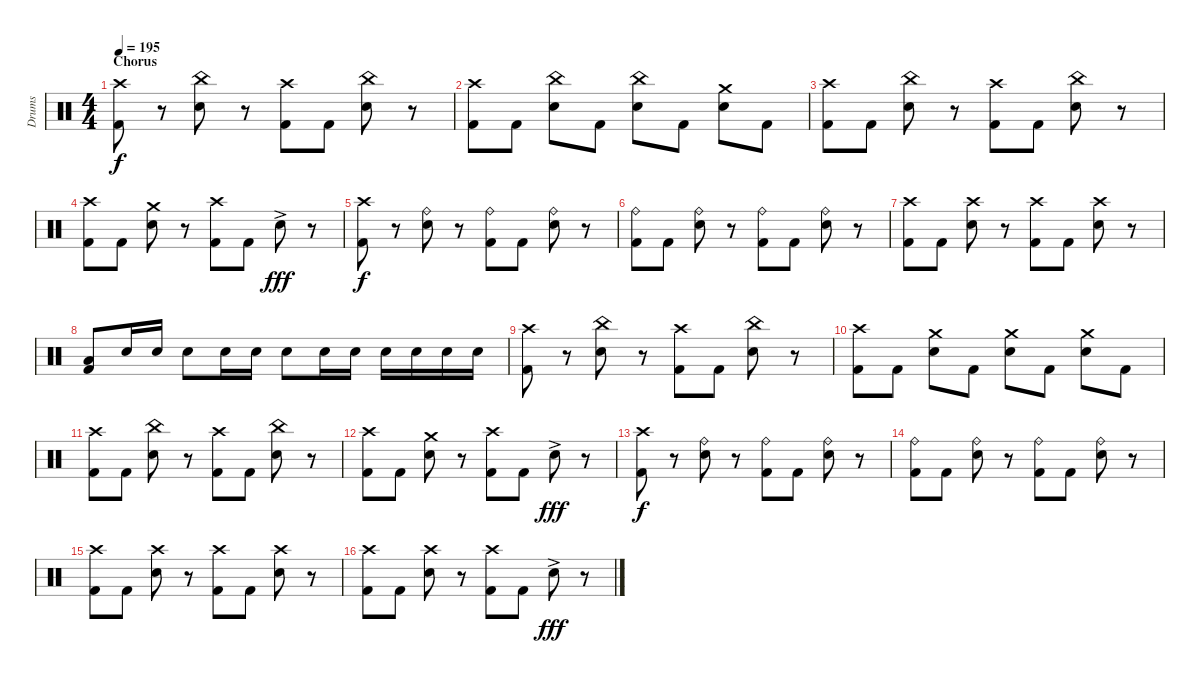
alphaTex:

\track ("Drums" "Drums") {instrument percussion}
\staff {score}
\articulation defaults
\ts (4 4)
\section ("" "Chorus")
\tempo 195
\clef neutral
\ks c
("Crash high (hit)" "Kick (hit) 2").8{dy f} r.8 ("China (hit)" "Electric Snare (hit)").8 r.8 ("Crash high (hit)" "Kick (hit) 2").8 "Kick (hit) 2".8 ("China (hit)" "Electric Snare (hit)").8 r.8 |
("Crash high (hit)" "Kick (hit) 2").8 "Kick (hit) 2".8 ("China (hit)" "Electric Snare (hit)").8 "Kick (hit) 2".8 ("China (hit)" "Electric Snare (hit)").8 "Kick (hit) 2".8 ("Crash medium (hit)" "Electric Snare (hit)").8 "Kick (hit) 2".8 |
("Crash high (hit)" "Kick (hit) 2").8 "Kick (hit) 2".8 ("China (hit)" "Electric Snare (hit)").8 r.8 ("Crash high (hit)" "Kick (hit) 2").8 "Kick (hit) 2".8 ("China (hit)" "Electric Snare (hit)").8 r.8 |
("Crash high (hit)" "Kick (hit) 2").8 "Kick (hit) 2".8 ("Crash medium (hit)" "Electric Snare (hit)").8 r.8 ("Crash high (hit)" "Kick (hit) 2").8 "Kick (hit) 2".8 "Electric Snare (hit)"{ac}.8{dy fff} r.8 |
("Crash high (hit)" "Kick (hit) 2").8{dy f} r.8 ("Ride (bell)" "Electric Snare (hit)").8 r.8 ("Ride (bell)" "Kick (hit) 2").8 "Kick (hit) 2".8 ("Ride (bell)" "Electric Snare (hit)").8 r.8 |
("Ride (bell)" "Kick (hit) 2").8 "Kick (hit) 2".8 ("Ride (bell)" "Electric Snare (hit)").8 r.8 ("Ride (bell)" "Kick (hit) 2").8 "Kick (hit) 2".8 ("Ride (bell)" "Electric Snare (hit)").8 r.8 |
("Crash high (hit)" "Kick (hit) 2").8 "Kick (hit) 2".8 ("Crash high (hit)" "Electric Snare (hit)").8 r.8 ("Crash high (hit)" "Kick (hit) 2").8 "Kick (hit) 2".8 ("Crash high (hit)" "Electric Snare (hit)").8 r.8 |
("Low Tom (hit)" "Kick (hit) 2").8 "Electric Snare (hit)".16 "Electric Snare (hit)".16 "Electric Snare (hit)".8 "Electric Snare (hit)".16 "Electric Snare (hit)".16 "Electric Snare (hit)".8 "Electric Snare (hit)".16 "Electric Snare (hit)".16 "Electric Snare (hit)".16 "Electric Snare (hit)".16 "Electric Snare (hit)".16 "Electric Snare (hit)".16 |
("Crash high (hit)" "Kick (hit) 2").8 r.8 ("China (hit)" "Electric Snare (hit)").8 r.8 ("Crash high (hit)" "Kick (hit) 2").8 "Kick (hit) 2".8 ("China (hit)" "Electric Snare (hit)").8 r.8 |
("Crash high (hit)" "Kick (hit) 2").8 "Kick (hit) 2".8 ("Crash medium (hit)" "Electric Snare (hit)").8 "Kick (hit) 2".8 ("Crash medium (hit)" "Electric Snare (hit)").8 "Kick (hit) 2".8 ("Crash medium (hit)" "Electric Snare (hit)").8 "Kick (hit) 2".8 |
("Crash high (hit)" "Kick (hit) 2").8 "Kick (hit) 2".8 ("China (hit)" "Electric Snare (hit)").8 r.8 ("Crash high (hit)" "Kick (hit) 2").8 "Kick (hit) 2".8 ("China (hit)" "Electric Snare (hit)").8 r.8 |
("Crash high (hit)" "Kick (hit) 2").8 "Kick (hit) 2".8 ("Crash medium (hit)" "Electric Snare (hit)").8 r.8 ("Crash high (hit)" "Kick (hit) 2").8 "Kick (hit) 2".8 "Electric Snare (hit)"{ac}.8{dy fff} r.8 |
("Crash high (hit)" "Kick (hit) 2").8{dy f} r.8 ("Ride (bell)" "Electric Snare (hit)").8 r.8 ("Ride (bell)" "Kick (hit) 2").8 "Kick (hit) 2".8 ("Ride (bell)" "Electric Snare (hit)").8 r.8 |
("Ride (bell)" "Kick (hit) 2").8 "Kick (hit) 2".8 ("Ride (bell)" "Electric Snare (hit)").8 r.8 ("Ride (bell)" "Kick (hit) 2").8 "Kick (hit) 2".8 ("Ride (bell)" "Electric Snare (hit)").8 r.8 |
("Crash high (hit)" "Kick (hit) 2").8 "Kick (hit) 2".8 ("Crash high (hit)" "Electric Snare (hit)").8 r.8 ("Crash high (hit)" "Kick (hit) 2").8 "Kick (hit) 2".8 ("Crash high (hit)" "Electric Snare (hit)").8 r.8 |
("Crash high (hit)" "Kick (hit) 2").8 "Kick (hit) 2".8 ("Crash high (hit)" "Electric Snare (hit)").8 r.8 ("Crash high (hit)" "Kick (hit) 2").8 "Kick (hit) 2".8 "Electric Snare (hit)"{ac}.8{dy fff} r.8
